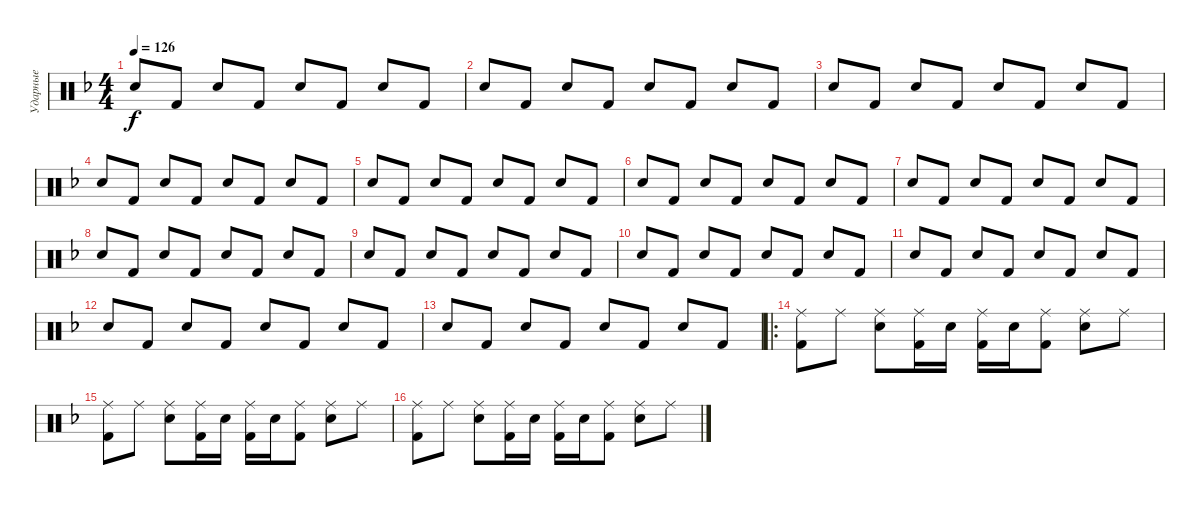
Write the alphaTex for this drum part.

\track ("Ударные" "Ударные") {instrument percussion}
\staff {score}
\articulation defaults
\ts (4 4)
\tempo 126
\clef neutral
\ks dminor "Electric Snare (hit)".8{dy f} "Kick (hit) 2".8 "Electric Snare (hit)".8 "Kick (hit) 2".8 "Electric Snare (hit)".8 "Kick (hit) 2".8 "Electric Snare (hit)".8 "Kick (hit) 2".8
|
"Electric Snare (hit)".8 "Kick (hit) 2".8 "Electric Snare (hit)".8 "Kick (hit) 2".8 "Electric Snare (hit)".8 "Kick (hit) 2".8 "Electric Snare (hit)".8 "Kick (hit) 2".8 |
"Electric Snare (hit)".8 "Kick (hit) 2".8 "Electric Snare (hit)".8 "Kick (hit) 2".8 "Electric Snare (hit)".8 "Kick (hit) 2".8 "Electric Snare (hit)".8 "Kick (hit) 2".8 |
"Electric Snare (hit)".8 "Kick (hit) 2".8 "Electric Snare (hit)".8 "Kick (hit) 2".8 "Electric Snare (hit)".8 "Kick (hit) 2".8 "Electric Snare (hit)".8 "Kick (hit) 2".8 |
"Electric Snare (hit)".8 "Kick (hit) 2".8 "Electric Snare (hit)".8 "Kick (hit) 2".8 "Electric Snare (hit)".8 "Kick (hit) 2".8 "Electric Snare (hit)".8 "Kick (hit) 2".8 |
"Electric Snare (hit)".8 "Kick (hit) 2".8 "Electric Snare (hit)".8 "Kick (hit) 2".8 "Electric Snare (hit)".8 "Kick (hit) 2".8 "Electric Snare (hit)".8 "Kick (hit) 2".8 |
"Electric Snare (hit)".8 "Kick (hit) 2".8 "Electric Snare (hit)".8 "Kick (hit) 2".8 "Electric Snare (hit)".8 "Kick (hit) 2".8 "Electric Snare (hit)".8 "Kick (hit) 2".8 |
"Electric Snare (hit)".8 "Kick (hit) 2".8 "Electric Snare (hit)".8 "Kick (hit) 2".8 "Electric Snare (hit)".8 "Kick (hit) 2".8 "Electric Snare (hit)".8 "Kick (hit) 2".8 |
"Electric Snare (hit)".8 "Kick (hit) 2".8 "Electric Snare (hit)".8 "Kick (hit) 2".8 "Electric Snare (hit)".8 "Kick (hit) 2".8 "Electric Snare (hit)".8 "Kick (hit) 2".8 |
"Electric Snare (hit)".8 "Kick (hit) 2".8 "Electric Snare (hit)".8 "Kick (hit) 2".8 "Electric Snare (hit)".8 "Kick (hit) 2".8 "Electric Snare (hit)".8 "Kick (hit) 2".8 |
"Electric Snare (hit)".8 "Kick (hit) 2".8 "Electric Snare (hit)".8 "Kick (hit) 2".8 "Electric Snare (hit)".8 "Kick (hit) 2".8 "Electric Snare (hit)".8 "Kick (hit) 2".8 |
"Electric Snare (hit)".8 "Kick (hit) 2".8 "Electric Snare (hit)".8 "Kick (hit) 2".8 "Electric Snare (hit)".8 "Kick (hit) 2".8 "Electric Snare (hit)".8 "Kick (hit) 2".8 |
"Electric Snare (hit)".8 "Kick (hit) 2".8 "Electric Snare (hit)".8 "Kick (hit) 2".8 "Electric Snare (hit)".8 "Kick (hit) 2".8 "Electric Snare (hit)".8 "Kick (hit) 2".8 |
\ro
("Ride (middle)" "Kick (hit) 2").8 "Ride (middle)".8 ("Ride (middle)" "Electric Snare (hit)").8 ("Ride (middle)" "Kick (hit) 2").16 "Electric Snare (hit)".16 ("Ride (middle)" "Kick (hit) 2").16 "Electric Snare (hit)".16 ("Ride (middle)" "Kick (hit) 2").8 ("Ride (middle)" "Electric Snare (hit)").8 "Ride (middle)".8 |
("Ride (middle)" "Kick (hit) 2").8 "Ride (middle)".8 ("Ride (middle)" "Electric Snare (hit)").8 ("Ride (middle)" "Kick (hit) 2").16 "Electric Snare (hit)".16 ("Ride (middle)" "Kick (hit) 2").16 "Electric Snare (hit)".16 ("Ride (middle)" "Kick (hit) 2").8 ("Ride (middle)" "Electric Snare (hit)").8 "Ride (middle)".8 |
("Ride (middle)" "Kick (hit) 2").8 "Ride (middle)".8 ("Ride (middle)" "Electric Snare (hit)").8 ("Ride (middle)" "Kick (hit) 2").16 "Electric Snare (hit)".16 ("Ride (middle)" "Kick (hit) 2").16 "Electric Snare (hit)".16 ("Ride (middle)" "Kick (hit) 2").8 ("Ride (middle)" "Electric Snare (hit)").8 "Ride (middle)".8
